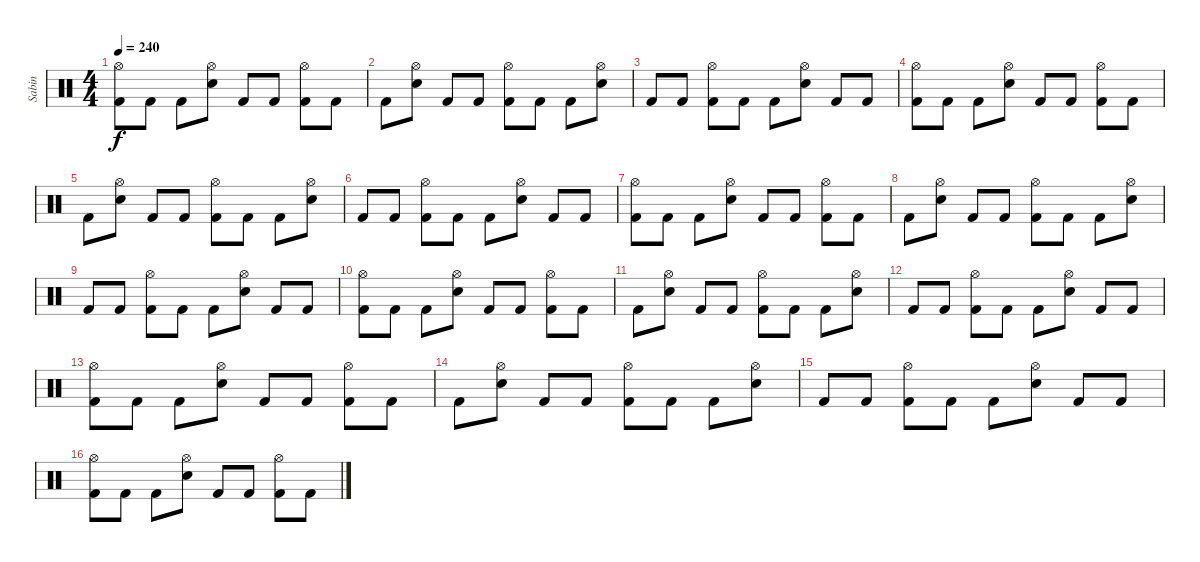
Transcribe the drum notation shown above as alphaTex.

\track ("Sabin" "Sabin") {instrument percussion}
\staff {score}
\articulation defaults
\ts (4 4)
\tempo 240
\clef neutral
\ks c
("Hi-Hat (open)" "Kick (hit) 2").8{dy f} "Kick (hit) 2".8 "Kick (hit) 2".8 ("Hi-Hat (open)" "Snare (hit) 2").8 "Kick (hit) 2".8 "Kick (hit) 2".8 ("Hi-Hat (open)" "Kick (hit) 2").8 "Kick (hit) 2".8 |
"Kick (hit) 2".8 ("Hi-Hat (open)" "Snare (hit) 2").8 "Kick (hit) 2".8 "Kick (hit) 2".8 ("Hi-Hat (open)" "Kick (hit) 2").8 "Kick (hit) 2".8 "Kick (hit) 2".8 ("Hi-Hat (open)" "Snare (hit) 2").8 |
"Kick (hit) 2".8 "Kick (hit) 2".8 ("Hi-Hat (open)" "Kick (hit) 2").8 "Kick (hit) 2".8 "Kick (hit) 2".8 ("Hi-Hat (open)" "Snare (hit) 2").8 "Kick (hit) 2".8 "Kick (hit) 2".8 |
("Hi-Hat (open)" "Kick (hit) 2").8 "Kick (hit) 2".8 "Kick (hit) 2".8 ("Hi-Hat (open)" "Snare (hit) 2").8 "Kick (hit) 2".8 "Kick (hit) 2".8 ("Hi-Hat (open)" "Kick (hit) 2").8 "Kick (hit) 2".8 |
"Kick (hit) 2".8 ("Hi-Hat (open)" "Snare (hit) 2").8 "Kick (hit) 2".8 "Kick (hit) 2".8 ("Hi-Hat (open)" "Kick (hit) 2").8 "Kick (hit) 2".8 "Kick (hit) 2".8 ("Hi-Hat (open)" "Snare (hit) 2").8 |
"Kick (hit) 2".8 "Kick (hit) 2".8 ("Hi-Hat (open)" "Kick (hit) 2").8 "Kick (hit) 2".8 "Kick (hit) 2".8 ("Hi-Hat (open)" "Snare (hit) 2").8 "Kick (hit) 2".8 "Kick (hit) 2".8 |
("Hi-Hat (open)" "Kick (hit) 2").8 "Kick (hit) 2".8 "Kick (hit) 2".8 ("Hi-Hat (open)" "Snare (hit) 2").8 "Kick (hit) 2".8 "Kick (hit) 2".8 ("Hi-Hat (open)" "Kick (hit) 2").8 "Kick (hit) 2".8 |
"Kick (hit) 2".8 ("Hi-Hat (open)" "Snare (hit) 2").8 "Kick (hit) 2".8 "Kick (hit) 2".8 ("Hi-Hat (open)" "Kick (hit) 2").8 "Kick (hit) 2".8 "Kick (hit) 2".8 ("Hi-Hat (open)" "Snare (hit) 2").8 |
"Kick (hit) 2".8 "Kick (hit) 2".8 ("Hi-Hat (open)" "Kick (hit) 2").8 "Kick (hit) 2".8 "Kick (hit) 2".8 ("Hi-Hat (open)" "Snare (hit) 2").8 "Kick (hit) 2".8 "Kick (hit) 2".8 |
("Hi-Hat (open)" "Kick (hit) 2").8 "Kick (hit) 2".8 "Kick (hit) 2".8 ("Hi-Hat (open)" "Snare (hit) 2").8 "Kick (hit) 2".8 "Kick (hit) 2".8 ("Hi-Hat (open)" "Kick (hit) 2").8 "Kick (hit) 2".8 |
"Kick (hit) 2".8 ("Hi-Hat (open)" "Snare (hit) 2").8 "Kick (hit) 2".8 "Kick (hit) 2".8 ("Hi-Hat (open)" "Kick (hit) 2").8 "Kick (hit) 2".8 "Kick (hit) 2".8 ("Hi-Hat (open)" "Snare (hit) 2").8 |
"Kick (hit) 2".8 "Kick (hit) 2".8 ("Hi-Hat (open)" "Kick (hit) 2").8 "Kick (hit) 2".8 "Kick (hit) 2".8 ("Hi-Hat (open)" "Snare (hit) 2").8 "Kick (hit) 2".8 "Kick (hit) 2".8 |
("Hi-Hat (open)" "Kick (hit) 2").8 "Kick (hit) 2".8 "Kick (hit) 2".8 ("Hi-Hat (open)" "Snare (hit) 2").8 "Kick (hit) 2".8 "Kick (hit) 2".8 ("Hi-Hat (open)" "Kick (hit) 2").8 "Kick (hit) 2".8 |
"Kick (hit) 2".8 ("Hi-Hat (open)" "Snare (hit) 2").8 "Kick (hit) 2".8 "Kick (hit) 2".8 ("Hi-Hat (open)" "Kick (hit) 2").8 "Kick (hit) 2".8 "Kick (hit) 2".8 ("Hi-Hat (open)" "Snare (hit) 2").8 |
"Kick (hit) 2".8 "Kick (hit) 2".8 ("Hi-Hat (open)" "Kick (hit) 2").8 "Kick (hit) 2".8 "Kick (hit) 2".8 ("Hi-Hat (open)" "Snare (hit) 2").8 "Kick (hit) 2".8 "Kick (hit) 2".8 |
("Hi-Hat (open)" "Kick (hit) 2").8 "Kick (hit) 2".8 "Kick (hit) 2".8 ("Hi-Hat (open)" "Snare (hit) 2").8 "Kick (hit) 2".8 "Kick (hit) 2".8 ("Hi-Hat (open)" "Kick (hit) 2").8 "Kick (hit) 2".8
